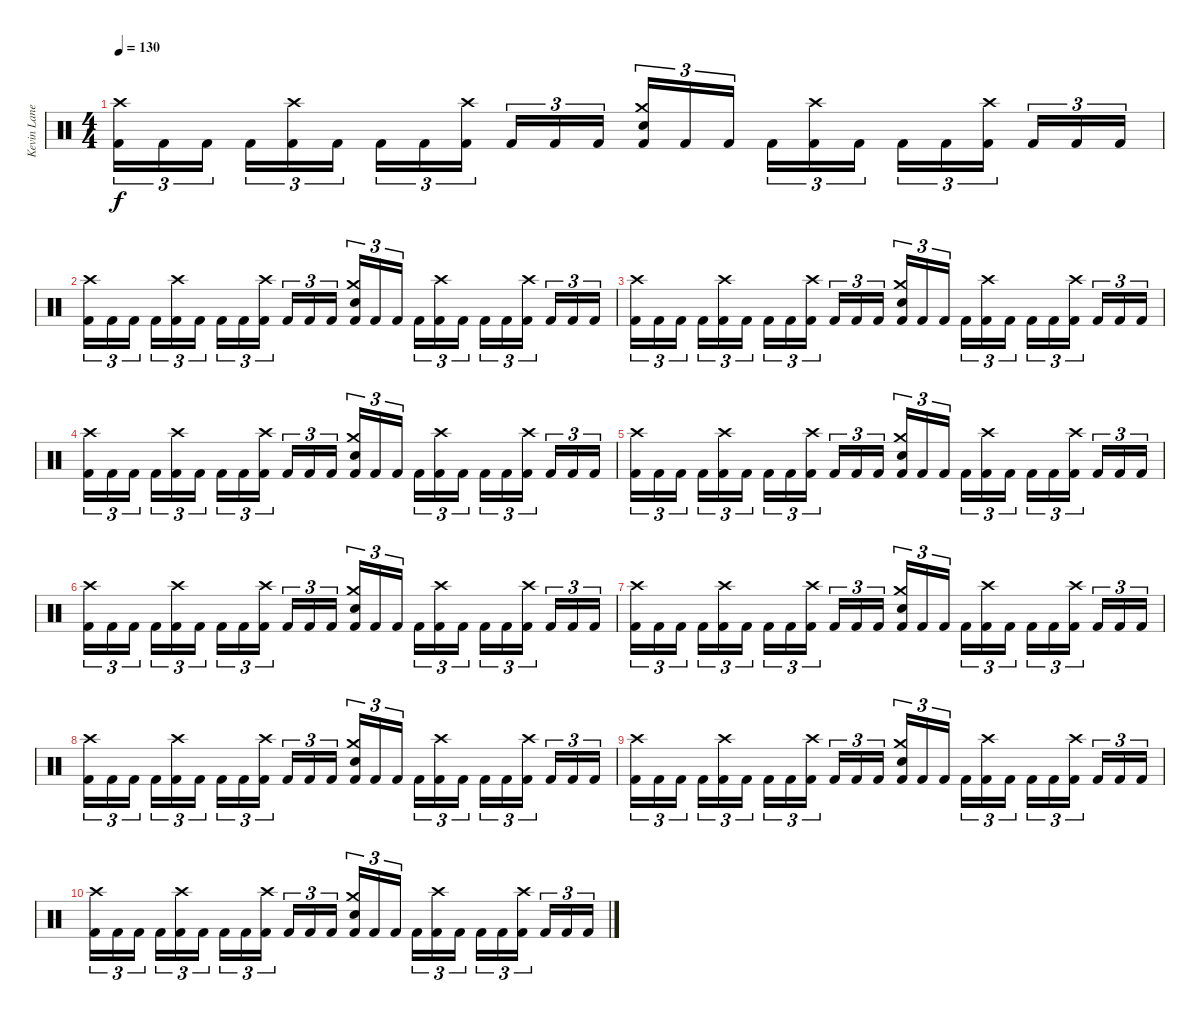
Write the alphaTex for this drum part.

\track ("Kevin Lane" "Kevin Lane") {instrument percussion}
\staff {score}
\articulation defaults
\ts (4 4)
\tempo 130
\clef neutral
\ks c
("Crash high (hit)" "Kick (hit) 2").16{tu (3 2) dy f} "Kick (hit) 2".16{tu (3 2)} "Kick (hit) 2".16{tu (3 2) beam splitsecondary} "Kick (hit) 2".16{tu (3 2)} ("Crash high (hit)" "Kick (hit) 2").16{tu (3 2)} "Kick (hit) 2".16{tu (3 2)} "Kick (hit) 2".16{tu (3 2)} "Kick (hit) 2".16{tu (3 2)} ("Crash high (hit)" "Kick (hit) 2").16{tu (3 2) beam splitsecondary} "Kick (hit) 2".16{tu (3 2)} "Kick (hit) 2".16{tu (3 2)} "Kick (hit) 2".16{tu (3 2)} ("Crash medium (hit)" "Electric Snare (hit)" "Kick (hit) 2").16{tu (3 2)} "Kick (hit) 2".16{tu (3 2)} "Kick (hit) 2".16{tu (3 2) beam splitsecondary} "Kick (hit) 2".16{tu (3 2)} ("Crash high (hit)" "Kick (hit) 2").16{tu (3 2)} "Kick (hit) 2".16{tu (3 2)} "Kick (hit) 2".16{tu (3 2)} "Kick (hit) 2".16{tu (3 2)} ("Crash high (hit)" "Kick (hit) 2").16{tu (3 2) beam splitsecondary} "Kick (hit) 2".16{tu (3 2)} "Kick (hit) 2".16{tu (3 2)} "Kick (hit) 2".16{tu (3 2)} |
("Crash high (hit)" "Kick (hit) 2").16{tu (3 2)} "Kick (hit) 2".16{tu (3 2)} "Kick (hit) 2".16{tu (3 2) beam splitsecondary} "Kick (hit) 2".16{tu (3 2)} ("Crash high (hit)" "Kick (hit) 2").16{tu (3 2)} "Kick (hit) 2".16{tu (3 2)} "Kick (hit) 2".16{tu (3 2)} "Kick (hit) 2".16{tu (3 2)} ("Crash high (hit)" "Kick (hit) 2").16{tu (3 2) beam splitsecondary} "Kick (hit) 2".16{tu (3 2)} "Kick (hit) 2".16{tu (3 2)} "Kick (hit) 2".16{tu (3 2)} ("Crash medium (hit)" "Electric Snare (hit)" "Kick (hit) 2").16{tu (3 2)} "Kick (hit) 2".16{tu (3 2)} "Kick (hit) 2".16{tu (3 2) beam splitsecondary} "Kick (hit) 2".16{tu (3 2)} ("Crash high (hit)" "Kick (hit) 2").16{tu (3 2)} "Kick (hit) 2".16{tu (3 2)} "Kick (hit) 2".16{tu (3 2)} "Kick (hit) 2".16{tu (3 2)} ("Crash high (hit)" "Kick (hit) 2").16{tu (3 2) beam splitsecondary} "Kick (hit) 2".16{tu (3 2)} "Kick (hit) 2".16{tu (3 2)} "Kick (hit) 2".16{tu (3 2)} |
("Crash high (hit)" "Kick (hit) 2").16{tu (3 2) volume 4} "Kick (hit) 2".16{tu (3 2)} "Kick (hit) 2".16{tu (3 2) beam splitsecondary} "Kick (hit) 2".16{tu (3 2)} ("Crash high (hit)" "Kick (hit) 2").16{tu (3 2)} "Kick (hit) 2".16{tu (3 2)} "Kick (hit) 2".16{tu (3 2)} "Kick (hit) 2".16{tu (3 2)} ("Crash high (hit)" "Kick (hit) 2").16{tu (3 2) beam splitsecondary} "Kick (hit) 2".16{tu (3 2)} "Kick (hit) 2".16{tu (3 2)} "Kick (hit) 2".16{tu (3 2)} ("Crash medium (hit)" "Electric Snare (hit)" "Kick (hit) 2").16{tu (3 2)} "Kick (hit) 2".16{tu (3 2)} "Kick (hit) 2".16{tu (3 2) beam splitsecondary} "Kick (hit) 2".16{tu (3 2)} ("Crash high (hit)" "Kick (hit) 2").16{tu (3 2)} "Kick (hit) 2".16{tu (3 2)} "Kick (hit) 2".16{tu (3 2)} "Kick (hit) 2".16{tu (3 2)} ("Crash high (hit)" "Kick (hit) 2").16{tu (3 2) beam splitsecondary} "Kick (hit) 2".16{tu (3 2)} "Kick (hit) 2".16{tu (3 2)} "Kick (hit) 2".16{tu (3 2)} |
("Crash high (hit)" "Kick (hit) 2").16{tu (3 2)} "Kick (hit) 2".16{tu (3 2)} "Kick (hit) 2".16{tu (3 2) beam splitsecondary} "Kick (hit) 2".16{tu (3 2)} ("Crash high (hit)" "Kick (hit) 2").16{tu (3 2)} "Kick (hit) 2".16{tu (3 2)} "Kick (hit) 2".16{tu (3 2)} "Kick (hit) 2".16{tu (3 2)} ("Crash high (hit)" "Kick (hit) 2").16{tu (3 2) beam splitsecondary} "Kick (hit) 2".16{tu (3 2)} "Kick (hit) 2".16{tu (3 2)} "Kick (hit) 2".16{tu (3 2)} ("Crash medium (hit)" "Electric Snare (hit)" "Kick (hit) 2").16{tu (3 2)} "Kick (hit) 2".16{tu (3 2)} "Kick (hit) 2".16{tu (3 2) beam splitsecondary} "Kick (hit) 2".16{tu (3 2)} ("Crash high (hit)" "Kick (hit) 2").16{tu (3 2)} "Kick (hit) 2".16{tu (3 2)} "Kick (hit) 2".16{tu (3 2)} "Kick (hit) 2".16{tu (3 2)} ("Crash high (hit)" "Kick (hit) 2").16{tu (3 2) beam splitsecondary} "Kick (hit) 2".16{tu (3 2)} "Kick (hit) 2".16{tu (3 2)} "Kick (hit) 2".16{tu (3 2)} |
("Crash high (hit)" "Kick (hit) 2").16{tu (3 2)} "Kick (hit) 2".16{tu (3 2)} "Kick (hit) 2".16{tu (3 2) beam splitsecondary} "Kick (hit) 2".16{tu (3 2)} ("Crash high (hit)" "Kick (hit) 2").16{tu (3 2)} "Kick (hit) 2".16{tu (3 2)} "Kick (hit) 2".16{tu (3 2)} "Kick (hit) 2".16{tu (3 2)} ("Crash high (hit)" "Kick (hit) 2").16{tu (3 2) beam splitsecondary} "Kick (hit) 2".16{tu (3 2)} "Kick (hit) 2".16{tu (3 2)} "Kick (hit) 2".16{tu (3 2)} ("Crash medium (hit)" "Electric Snare (hit)" "Kick (hit) 2").16{tu (3 2)} "Kick (hit) 2".16{tu (3 2)} "Kick (hit) 2".16{tu (3 2) beam splitsecondary} "Kick (hit) 2".16{tu (3 2)} ("Crash high (hit)" "Kick (hit) 2").16{tu (3 2)} "Kick (hit) 2".16{tu (3 2)} "Kick (hit) 2".16{tu (3 2)} "Kick (hit) 2".16{tu (3 2)} ("Crash high (hit)" "Kick (hit) 2").16{tu (3 2) beam splitsecondary} "Kick (hit) 2".16{tu (3 2)} "Kick (hit) 2".16{tu (3 2)} "Kick (hit) 2".16{tu (3 2)} |
("Crash high (hit)" "Kick (hit) 2").16{tu (3 2)} "Kick (hit) 2".16{tu (3 2)} "Kick (hit) 2".16{tu (3 2) beam splitsecondary} "Kick (hit) 2".16{tu (3 2)} ("Crash high (hit)" "Kick (hit) 2").16{tu (3 2)} "Kick (hit) 2".16{tu (3 2)} "Kick (hit) 2".16{tu (3 2)} "Kick (hit) 2".16{tu (3 2)} ("Crash high (hit)" "Kick (hit) 2").16{tu (3 2) beam splitsecondary} "Kick (hit) 2".16{tu (3 2)} "Kick (hit) 2".16{tu (3 2)} "Kick (hit) 2".16{tu (3 2)} ("Crash medium (hit)" "Electric Snare (hit)" "Kick (hit) 2").16{tu (3 2)} "Kick (hit) 2".16{tu (3 2)} "Kick (hit) 2".16{tu (3 2) beam splitsecondary} "Kick (hit) 2".16{tu (3 2)} ("Crash high (hit)" "Kick (hit) 2").16{tu (3 2)} "Kick (hit) 2".16{tu (3 2)} "Kick (hit) 2".16{tu (3 2)} "Kick (hit) 2".16{tu (3 2)} ("Crash high (hit)" "Kick (hit) 2").16{tu (3 2) beam splitsecondary} "Kick (hit) 2".16{tu (3 2)} "Kick (hit) 2".16{tu (3 2)} "Kick (hit) 2".16{tu (3 2)} |
("Crash high (hit)" "Kick (hit) 2").16{tu (3 2) volume 0} "Kick (hit) 2".16{tu (3 2)} "Kick (hit) 2".16{tu (3 2) beam splitsecondary} "Kick (hit) 2".16{tu (3 2)} ("Crash high (hit)" "Kick (hit) 2").16{tu (3 2)} "Kick (hit) 2".16{tu (3 2)} "Kick (hit) 2".16{tu (3 2)} "Kick (hit) 2".16{tu (3 2)} ("Crash high (hit)" "Kick (hit) 2").16{tu (3 2) beam splitsecondary} "Kick (hit) 2".16{tu (3 2)} "Kick (hit) 2".16{tu (3 2)} "Kick (hit) 2".16{tu (3 2)} ("Crash medium (hit)" "Electric Snare (hit)" "Kick (hit) 2").16{tu (3 2)} "Kick (hit) 2".16{tu (3 2)} "Kick (hit) 2".16{tu (3 2) beam splitsecondary} "Kick (hit) 2".16{tu (3 2)} ("Crash high (hit)" "Kick (hit) 2").16{tu (3 2)} "Kick (hit) 2".16{tu (3 2)} "Kick (hit) 2".16{tu (3 2)} "Kick (hit) 2".16{tu (3 2)} ("Crash high (hit)" "Kick (hit) 2").16{tu (3 2) beam splitsecondary} "Kick (hit) 2".16{tu (3 2)} "Kick (hit) 2".16{tu (3 2)} "Kick (hit) 2".16{tu (3 2)} |
("Crash high (hit)" "Kick (hit) 2").16{tu (3 2)} "Kick (hit) 2".16{tu (3 2)} "Kick (hit) 2".16{tu (3 2) beam splitsecondary} "Kick (hit) 2".16{tu (3 2)} ("Crash high (hit)" "Kick (hit) 2").16{tu (3 2)} "Kick (hit) 2".16{tu (3 2)} "Kick (hit) 2".16{tu (3 2)} "Kick (hit) 2".16{tu (3 2)} ("Crash high (hit)" "Kick (hit) 2").16{tu (3 2) beam splitsecondary} "Kick (hit) 2".16{tu (3 2)} "Kick (hit) 2".16{tu (3 2)} "Kick (hit) 2".16{tu (3 2)} ("Crash medium (hit)" "Electric Snare (hit)" "Kick (hit) 2").16{tu (3 2)} "Kick (hit) 2".16{tu (3 2)} "Kick (hit) 2".16{tu (3 2) beam splitsecondary} "Kick (hit) 2".16{tu (3 2)} ("Crash high (hit)" "Kick (hit) 2").16{tu (3 2)} "Kick (hit) 2".16{tu (3 2)} "Kick (hit) 2".16{tu (3 2)} "Kick (hit) 2".16{tu (3 2)} ("Crash high (hit)" "Kick (hit) 2").16{tu (3 2) beam splitsecondary} "Kick (hit) 2".16{tu (3 2)} "Kick (hit) 2".16{tu (3 2)} "Kick (hit) 2".16{tu (3 2)} |
("Crash high (hit)" "Kick (hit) 2").16{tu (3 2)} "Kick (hit) 2".16{tu (3 2)} "Kick (hit) 2".16{tu (3 2) beam splitsecondary} "Kick (hit) 2".16{tu (3 2)} ("Crash high (hit)" "Kick (hit) 2").16{tu (3 2)} "Kick (hit) 2".16{tu (3 2)} "Kick (hit) 2".16{tu (3 2)} "Kick (hit) 2".16{tu (3 2)} ("Crash high (hit)" "Kick (hit) 2").16{tu (3 2) beam splitsecondary} "Kick (hit) 2".16{tu (3 2)} "Kick (hit) 2".16{tu (3 2)} "Kick (hit) 2".16{tu (3 2)} ("Crash medium (hit)" "Electric Snare (hit)" "Kick (hit) 2").16{tu (3 2)} "Kick (hit) 2".16{tu (3 2)} "Kick (hit) 2".16{tu (3 2) beam splitsecondary} "Kick (hit) 2".16{tu (3 2)} ("Crash high (hit)" "Kick (hit) 2").16{tu (3 2)} "Kick (hit) 2".16{tu (3 2)} "Kick (hit) 2".16{tu (3 2)} "Kick (hit) 2".16{tu (3 2)} ("Crash high (hit)" "Kick (hit) 2").16{tu (3 2) beam splitsecondary} "Kick (hit) 2".16{tu (3 2)} "Kick (hit) 2".16{tu (3 2)} "Kick (hit) 2".16{tu (3 2)} |
("Crash high (hit)" "Kick (hit) 2").16{tu (3 2)} "Kick (hit) 2".16{tu (3 2)} "Kick (hit) 2".16{tu (3 2) beam splitsecondary} "Kick (hit) 2".16{tu (3 2)} ("Crash high (hit)" "Kick (hit) 2").16{tu (3 2)} "Kick (hit) 2".16{tu (3 2)} "Kick (hit) 2".16{tu (3 2)} "Kick (hit) 2".16{tu (3 2)} ("Crash high (hit)" "Kick (hit) 2").16{tu (3 2) beam splitsecondary} "Kick (hit) 2".16{tu (3 2)} "Kick (hit) 2".16{tu (3 2)} "Kick (hit) 2".16{tu (3 2)} ("Crash medium (hit)" "Electric Snare (hit)" "Kick (hit) 2").16{tu (3 2)} "Kick (hit) 2".16{tu (3 2)} "Kick (hit) 2".16{tu (3 2) beam splitsecondary} "Kick (hit) 2".16{tu (3 2)} ("Crash high (hit)" "Kick (hit) 2").16{tu (3 2)} "Kick (hit) 2".16{tu (3 2)} "Kick (hit) 2".16{tu (3 2)} "Kick (hit) 2".16{tu (3 2)} ("Crash high (hit)" "Kick (hit) 2").16{tu (3 2) beam splitsecondary} "Kick (hit) 2".16{tu (3 2)} "Kick (hit) 2".16{tu (3 2)} "Kick (hit) 2".16{tu (3 2)}
